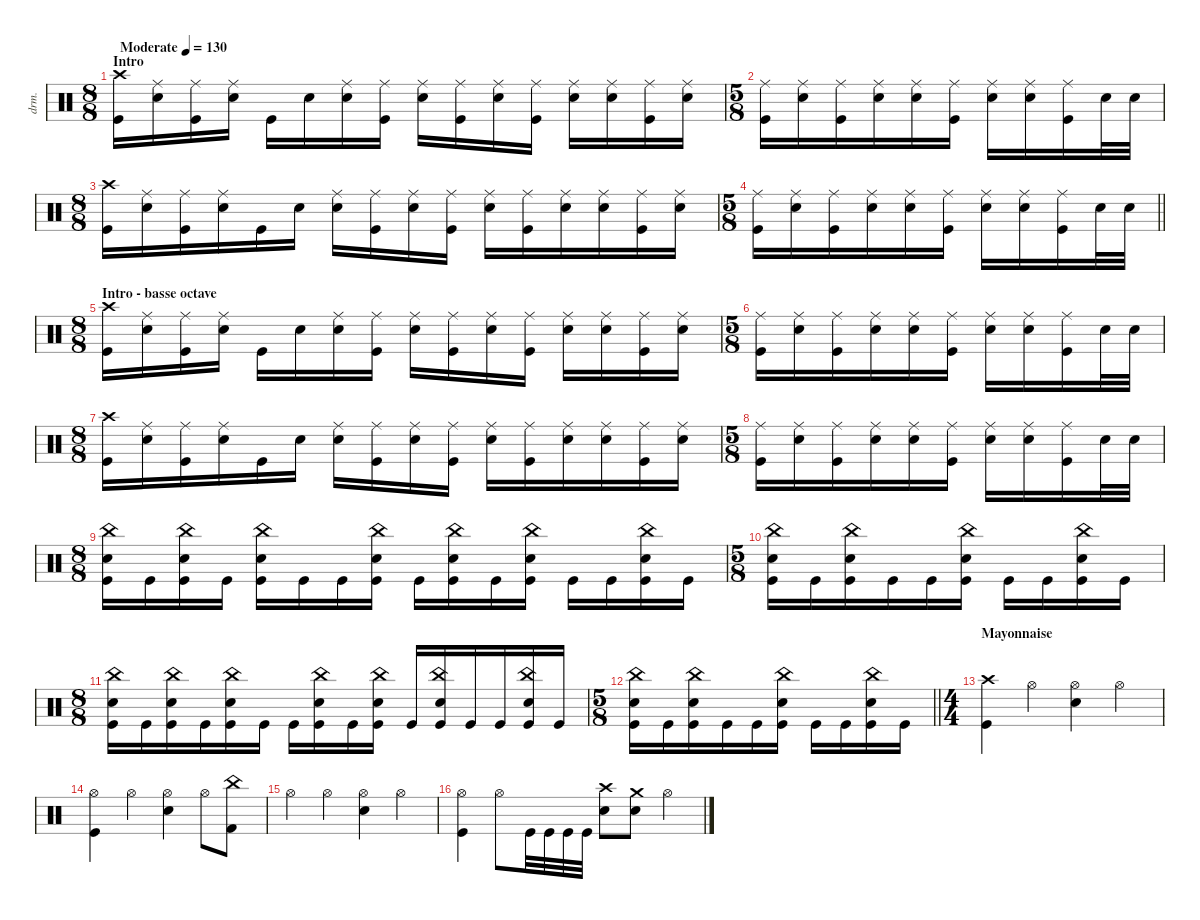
\defaultSystemsLayout 4
\hideDynamics
\bracketExtendMode nobrackets
\otherSystemsTrackNameOrientation horizontal
\track ("Manouche" "drm.") {instrument percussion}
\staff {score}
\articulation defaults
\ts (8 8)
\beaming (8 2 2 2 2)
\section ("" "Intro")
\tempo (130 "Moderate")
\clef neutral
\ks c
("Crash high (hit)" "Kick (hit)").16{dy f beam Down} ("Snare (hit) 2" "Ride (middle)").16{beam Down} ("Kick (hit)" "Ride (middle)").16{beam Down} ("Snare (hit) 2" "Ride (middle)").16{beam Down} "Kick (hit)".16{beam Down} "Snare (hit) 2".16{beam Down} ("Snare (hit) 2" "Ride (middle)").16{beam Down} ("Kick (hit)" "Ride (middle)").16{beam Down} ("Snare (hit) 2" "Ride (middle)").16{beam Down} ("Kick (hit)" "Ride (middle)").16{beam Down} ("Snare (hit) 2" "Ride (middle)").16{beam Down} ("Ride (middle)" "Kick (hit)").16{beam Down} ("Snare (hit) 2" "Ride (middle)").16{beam Down} ("Snare (hit) 2" "Ride (middle)").16{beam Down} ("Kick (hit)" "Ride (middle)").16{beam Down} ("Snare (hit) 2" "Ride (middle)").16{beam Down} |
\ts (5 8)
\beaming (8 3 2)
("Kick (hit)" "Ride (middle)").16{beam Down} ("Snare (hit) 2" "Ride (middle)").16{beam Down} ("Kick (hit)" "Ride (middle)").16{beam Down} ("Snare (hit) 2" "Ride (middle)").16{beam Down} ("Snare (hit) 2" "Ride (middle)").16{beam Down} ("Kick (hit)" "Ride (middle)").16{beam Down} ("Snare (hit) 2" "Ride (middle)").16{beam Down} ("Snare (hit) 2" "Ride (middle)").16{beam Down} ("Kick (hit)" "Ride (middle)").16{beam Down} "Snare (hit) 2".32{beam Down} "Snare (hit) 2".32{beam Down} |
\ts (8 8)
\beaming (8 3 2 3)
("Crash high (hit)" "Kick (hit)").16{beam Down} ("Snare (hit) 2" "Ride (middle)").16{beam Down} ("Kick (hit)" "Ride (middle)").16{beam Down} ("Snare (hit) 2" "Ride (middle)").16{beam Down} "Kick (hit)".16{beam Down} "Snare (hit) 2".16{beam Down} ("Snare (hit) 2" "Ride (middle)").16{beam Down} ("Kick (hit)" "Ride (middle)").16{beam Down} ("Snare (hit) 2" "Ride (middle)").16{beam Down} ("Kick (hit)" "Ride (middle)").16{beam Down} ("Snare (hit) 2" "Ride (middle)").16{beam Down} ("Ride (middle)" "Kick (hit)").16{beam Down} ("Snare (hit) 2" "Ride (middle)").16{beam Down} ("Snare (hit) 2" "Ride (middle)").16{beam Down} ("Kick (hit)" "Ride (middle)").16{beam Down} ("Snare (hit) 2" "Ride (middle)").16{beam Down} |
\ts (5 8)
\beaming (8 3 2)
\barLineRight lightlight
("Kick (hit)" "Ride (middle)").16{beam Down} ("Snare (hit) 2" "Ride (middle)").16{beam Down} ("Kick (hit)" "Ride (middle)").16{beam Down} ("Snare (hit) 2" "Ride (middle)").16{beam Down} ("Snare (hit) 2" "Ride (middle)").16{beam Down} ("Kick (hit)" "Ride (middle)").16{beam Down} ("Snare (hit) 2" "Ride (middle)").16{beam Down} ("Snare (hit) 2" "Ride (middle)").16{beam Down} ("Kick (hit)" "Ride (middle)").16{beam Down} "Snare (hit) 2".32{beam Down} "Snare (hit) 2".32{beam Down} |
\ts (8 8)
\beaming (8 2 2 2 2)
\section ("" "Intro - basse octave")
("Crash high (hit)" "Kick (hit)").16{beam Down} ("Snare (hit) 2" "Ride (middle)").16{beam Down} ("Kick (hit)" "Ride (middle)").16{beam Down} ("Snare (hit) 2" "Ride (middle)").16{beam Down} "Kick (hit)".16{beam Down} "Snare (hit) 2".16{beam Down} ("Snare (hit) 2" "Ride (middle)").16{beam Down} ("Kick (hit)" "Ride (middle)").16{beam Down} ("Snare (hit) 2" "Ride (middle)").16{beam Down} ("Kick (hit)" "Ride (middle)").16{beam Down} ("Snare (hit) 2" "Ride (middle)").16{beam Down} ("Ride (middle)" "Kick (hit)").16{beam Down} ("Snare (hit) 2" "Ride (middle)").16{beam Down} ("Snare (hit) 2" "Ride (middle)").16{beam Down} ("Kick (hit)" "Ride (middle)").16{beam Down} ("Snare (hit) 2" "Ride (middle)").16{beam Down} |
\ts (5 8)
\beaming (8 3 2)
("Kick (hit)" "Ride (middle)").16{beam Down} ("Snare (hit) 2" "Ride (middle)").16{beam Down} ("Kick (hit)" "Ride (middle)").16{beam Down} ("Snare (hit) 2" "Ride (middle)").16{beam Down} ("Snare (hit) 2" "Ride (middle)").16{beam Down} ("Kick (hit)" "Ride (middle)").16{beam Down} ("Snare (hit) 2" "Ride (middle)").16{beam Down} ("Snare (hit) 2" "Ride (middle)").16{beam Down} ("Kick (hit)" "Ride (middle)").16{beam Down} "Snare (hit) 2".32{beam Down} "Snare (hit) 2".32{beam Down} |
\ts (8 8)
\beaming (8 3 2 3)
("Crash high (hit)" "Kick (hit)").16{beam Down} ("Snare (hit) 2" "Ride (middle)").16{beam Down} ("Kick (hit)" "Ride (middle)").16{beam Down} ("Snare (hit) 2" "Ride (middle)").16{beam Down} "Kick (hit)".16{beam Down} "Snare (hit) 2".16{beam Down} ("Snare (hit) 2" "Ride (middle)").16{beam Down} ("Kick (hit)" "Ride (middle)").16{beam Down} ("Snare (hit) 2" "Ride (middle)").16{beam Down} ("Kick (hit)" "Ride (middle)").16{beam Down} ("Snare (hit) 2" "Ride (middle)").16{beam Down} ("Ride (middle)" "Kick (hit)").16{beam Down} ("Snare (hit) 2" "Ride (middle)").16{beam Down} ("Snare (hit) 2" "Ride (middle)").16{beam Down} ("Kick (hit)" "Ride (middle)").16{beam Down} ("Snare (hit) 2" "Ride (middle)").16{beam Down} |
\ts (5 8)
\beaming (8 3 2)
("Kick (hit)" "Ride (middle)").16{beam Down} ("Snare (hit) 2" "Ride (middle)").16{beam Down} ("Kick (hit)" "Ride (middle)").16{beam Down} ("Snare (hit) 2" "Ride (middle)").16{beam Down} ("Snare (hit) 2" "Ride (middle)").16{beam Down} ("Kick (hit)" "Ride (middle)").16{beam Down} ("Snare (hit) 2" "Ride (middle)").16{beam Down} ("Snare (hit) 2" "Ride (middle)").16{beam Down} ("Kick (hit)" "Ride (middle)").16{beam Down} "Snare (hit) 2".32{beam Down} "Snare (hit) 2".32{beam Down} |
\ts (8 8)
\beaming (8 2 2 2 2)
("Snare (hit) 2" "China (hit)" "Kick (hit)").16{beam Down} "Kick (hit)".16{beam Down} ("Kick (hit)" "Snare (hit) 2" "China (hit)").16{beam Down} "Kick (hit)".16{beam Down} ("Kick (hit)" "Snare (hit) 2" "China (hit)").16{beam Down} "Kick (hit)".16{beam Down} "Kick (hit)".16{beam Down} ("Kick (hit)" "Snare (hit) 2" "China (hit)").16{beam Down} "Kick (hit)".16{beam Down} ("Kick (hit)" "Snare (hit) 2" "China (hit)").16{beam Down} "Kick (hit)".16{beam Down} ("Kick (hit)" "Snare (hit) 2" "China (hit)").16{beam Down} "Kick (hit)".16{beam Down} "Kick (hit)".16{beam Down} ("Kick (hit)" "Snare (hit) 2" "China (hit)").16{beam Down} "Kick (hit)".16{beam Down} |
\ts (5 8)
\beaming (8 3 2)
("Kick (hit)" "Snare (hit) 2" "China (hit)").16{beam Down} "Kick (hit)".16{beam Down} ("Kick (hit)" "Snare (hit) 2" "China (hit)").16{beam Down} "Kick (hit)".16{beam Down} "Kick (hit)".16{beam Down} ("Kick (hit)" "Snare (hit) 2" "China (hit)").16{beam Down} "Kick (hit)".16{beam Down} "Kick (hit)".16{beam Down} ("Kick (hit)" "Snare (hit) 2" "China (hit)").16{beam Down} "Kick (hit)".16{beam Down} |
\ts (8 8)
\beaming (8 3 2 3)
("Snare (hit) 2" "China (hit)" "Kick (hit)").16{beam Down} "Kick (hit)".16{beam Down} ("Kick (hit)" "Snare (hit) 2" "China (hit)").16{beam Down} "Kick (hit)".16{beam Down} ("Kick (hit)" "Snare (hit) 2" "China (hit)").16{beam Down} "Kick (hit)".16{beam Down} "Kick (hit)".16{beam Down} ("Kick (hit)" "Snare (hit) 2" "China (hit)").16{beam Down} "Kick (hit)".16{beam Down} ("Kick (hit)" "Snare (hit) 2" "China (hit)").16{beam Down} "Kick (hit)".16{beam Up} ("Kick (hit)" "Snare (hit) 2" "China (hit)").16{beam Up} "Kick (hit)".16{beam Up} "Kick (hit)".16{beam Up} ("Kick (hit)" "Snare (hit) 2" "China (hit)").16{beam Up} "Kick (hit)".16{beam Up} |
\ts (5 8)
\beaming (8 3 2)
\barLineRight lightlight
("Kick (hit)" "Snare (hit) 2" "China (hit)").16{beam Down} "Kick (hit)".16{beam Down} ("Kick (hit)" "Snare (hit) 2" "China (hit)").16{beam Down} "Kick (hit)".16{beam Down} "Kick (hit)".16{beam Down} ("Kick (hit)" "Snare (hit) 2" "China (hit)").16{beam Down} "Kick (hit)".16{beam Down} "Kick (hit)".16{beam Down} ("Kick (hit)" "Snare (hit) 2" "China (hit)").16{beam Down} "Kick (hit)".16{beam Down} |
\ts (4 4)
\beaming (8 2 2 2 2)
\section ("" "Mayonnaise")
("Crash high (hit)" "Kick (hit)").4{beam Down} "Hi-Hat (open)".4{beam Down} ("Hi-Hat (open)" "Snare (hit) 2").4{beam Down} "Hi-Hat (open)".4{beam Down} |
("Hi-Hat (open)" "Kick (hit)").4{beam Down} "Hi-Hat (open)".4{beam Down} ("Hi-Hat (open)" "Snare (hit) 2").4{beam Down} "Hi-Hat (open)".8{beam Down} ("China (hit)" "Kick (hit) 2").8{beam Down} |
"Hi-Hat (open)".4{beam Down} "Hi-Hat (open)".4{beam Down} ("Hi-Hat (open)" "Snare (hit) 2").4{beam Down} "Hi-Hat (open)".4{beam Down} |
("Hi-Hat (open)" "Kick (hit)").4{beam Down} "Hi-Hat (open)".8{beam Down} "Kick (hit)".32{beam Down} "Kick (hit)".32{beam Down} "Kick (hit)".32{beam Down} "Kick (hit)".32{beam Down} ("Snare (hit) 2" "Crash high (hit)").8{beam Down} ("Crash medium (hit)" "Snare (hit) 2").8{beam Down} "Hi-Hat (open)".4{beam Down}
